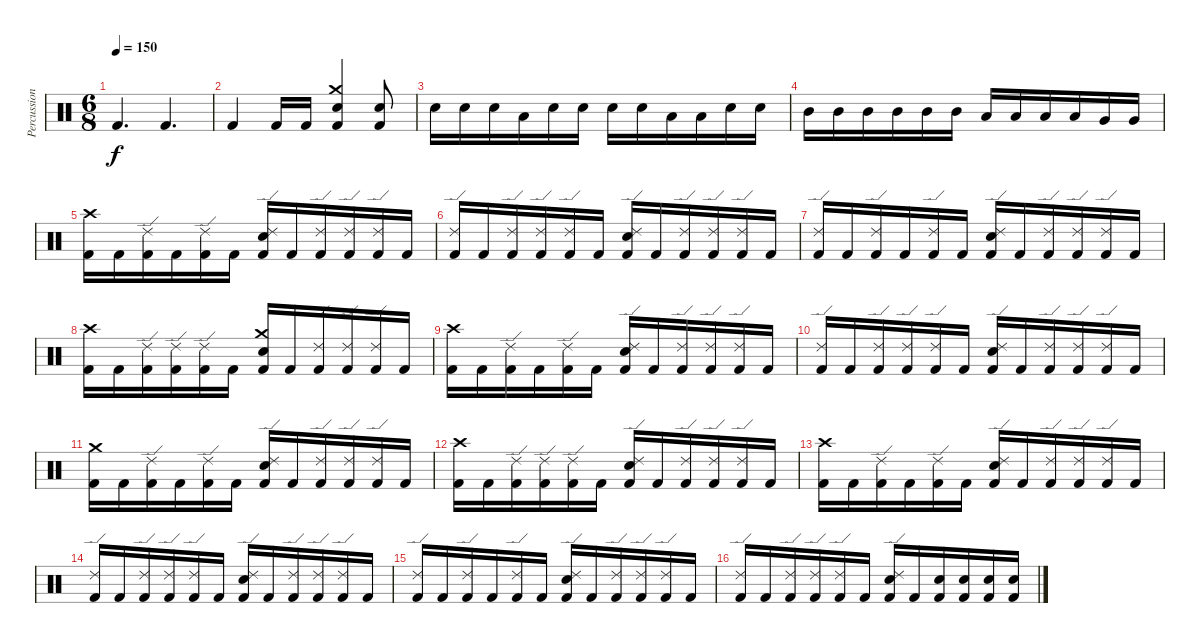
\track ("Percussion" "Percussion") {instrument percussion}
\staff {score}
\articulation defaults
\ts (6 8)
\tempo 150
\clef neutral
\ks c "Kick (hit) 2".4{d dy f} "Kick (hit) 2".4{d}
|
"Kick (hit) 2".4 "Kick (hit) 2".16 "Kick (hit) 2".16 ("Crash medium (hit)" "Electric Snare (hit)" "Kick (hit) 2").4 ("Electric Snare (hit)" "Kick (hit) 2").8 |
"Electric Snare (hit)".16 "Electric Snare (hit)".16 "Electric Snare (hit)".16 "Low Tom (hit)".16 "Electric Snare (hit)".16 "Electric Snare (hit)".16 "Electric Snare (hit)".16 "Electric Snare (hit)".16 "Low Tom (hit)".16 "Low Tom (hit)".16 "Electric Snare (hit)".16 "Electric Snare (hit)".16 |
"Mid Tom (hit)".16 "Mid Tom (hit)".16 "Mid Tom (hit)".16 "Mid Tom (hit)".16 "Mid Tom (hit)".16 "Mid Tom (hit)".16 "Low Tom (hit)".16 "Low Tom (hit)".16 "Low Tom (hit)".16 "Low Tom (hit)".16 "Very Low Tom (hit)".16 "Very Low Tom (hit)".16 |
("Crash high (hit)" "Kick (hit) 2").16 "Kick (hit) 2".16 ("Ride (edge) 2" "Kick (hit) 2").16 "Kick (hit) 2".16 ("Ride (edge) 2" "Kick (hit) 2").16 "Kick (hit) 2".16 ("Ride (edge) 2" "Electric Snare (hit)" "Kick (hit) 2").16 "Kick (hit) 2".16 ("Ride (edge) 2" "Kick (hit) 2").16 ("Ride (edge) 2" "Kick (hit) 2").16 ("Ride (edge) 2" "Kick (hit) 2").16 "Kick (hit) 2".16 |
("Ride (edge) 2" "Kick (hit) 2").16 "Kick (hit) 2".16 ("Ride (edge) 2" "Kick (hit) 2").16 ("Ride (edge) 2" "Kick (hit) 2").16 ("Ride (edge) 2" "Kick (hit) 2").16 "Kick (hit) 2".16 ("Ride (edge) 2" "Electric Snare (hit)" "Kick (hit) 2").16 "Kick (hit) 2".16 ("Ride (edge) 2" "Kick (hit) 2").16 ("Ride (edge) 2" "Kick (hit) 2").16 ("Ride (edge) 2" "Kick (hit) 2").16 "Kick (hit) 2".16 |
("Ride (edge) 2" "Kick (hit) 2").16 "Kick (hit) 2".16 ("Ride (edge) 2" "Kick (hit) 2").16 "Kick (hit) 2".16 ("Ride (edge) 2" "Kick (hit) 2").16 "Kick (hit) 2".16 ("Ride (edge) 2" "Electric Snare (hit)" "Kick (hit) 2").16 "Kick (hit) 2".16 ("Ride (edge) 2" "Kick (hit) 2").16 ("Ride (edge) 2" "Kick (hit) 2").16 ("Ride (edge) 2" "Kick (hit) 2").16 "Kick (hit) 2".16 |
("Crash high (hit)" "Kick (hit) 2").16 "Kick (hit) 2".16 ("Ride (edge) 2" "Kick (hit) 2").16 ("Ride (edge) 2" "Kick (hit) 2").16 ("Ride (edge) 2" "Kick (hit) 2").16 "Kick (hit) 2".16 ("Crash medium (hit)" "Electric Snare (hit)" "Kick (hit) 2").16 "Kick (hit) 2".16 ("Ride (edge) 2" "Kick (hit) 2").16 ("Ride (edge) 2" "Kick (hit) 2").16 ("Ride (edge) 2" "Kick (hit) 2").16 "Kick (hit) 2".16 |
("Crash high (hit)" "Kick (hit) 2").16 "Kick (hit) 2".16 ("Ride (edge) 2" "Kick (hit) 2").16 "Kick (hit) 2".16 ("Ride (edge) 2" "Kick (hit) 2").16 "Kick (hit) 2".16 ("Ride (edge) 2" "Electric Snare (hit)" "Kick (hit) 2").16 "Kick (hit) 2".16 ("Ride (edge) 2" "Kick (hit) 2").16 ("Ride (edge) 2" "Kick (hit) 2").16 ("Ride (edge) 2" "Kick (hit) 2").16 "Kick (hit) 2".16 |
("Ride (edge) 2" "Kick (hit) 2").16 "Kick (hit) 2".16 ("Ride (edge) 2" "Kick (hit) 2").16 ("Ride (edge) 2" "Kick (hit) 2").16 ("Ride (edge) 2" "Kick (hit) 2").16 "Kick (hit) 2".16 ("Ride (edge) 2" "Electric Snare (hit)" "Kick (hit) 2").16 "Kick (hit) 2".16 ("Ride (edge) 2" "Kick (hit) 2").16 ("Ride (edge) 2" "Kick (hit) 2").16 ("Ride (edge) 2" "Kick (hit) 2").16 "Kick (hit) 2".16 |
("Crash medium (hit)" "Kick (hit) 2").16 "Kick (hit) 2".16 ("Ride (edge) 2" "Kick (hit) 2").16 "Kick (hit) 2".16 ("Ride (edge) 2" "Kick (hit) 2").16 "Kick (hit) 2".16 ("Ride (edge) 2" "Electric Snare (hit)" "Kick (hit) 2").16 "Kick (hit) 2".16 ("Ride (edge) 2" "Kick (hit) 2").16 ("Ride (edge) 2" "Kick (hit) 2").16 ("Ride (edge) 2" "Kick (hit) 2").16 "Kick (hit) 2".16 |
("Crash high (hit)" "Kick (hit) 2").16 "Kick (hit) 2".16 ("Ride (edge) 2" "Kick (hit) 2").16 ("Ride (edge) 2" "Kick (hit) 2").16 ("Ride (edge) 2" "Kick (hit) 2").16 "Kick (hit) 2".16 ("Ride (edge) 2" "Electric Snare (hit)" "Kick (hit) 2").16 "Kick (hit) 2".16 ("Ride (edge) 2" "Kick (hit) 2").16 ("Ride (edge) 2" "Kick (hit) 2").16 ("Ride (edge) 2" "Kick (hit) 2").16 "Kick (hit) 2".16 |
("Crash high (hit)" "Kick (hit) 2").16 "Kick (hit) 2".16 ("Ride (edge) 2" "Kick (hit) 2").16 "Kick (hit) 2".16 ("Ride (edge) 2" "Kick (hit) 2").16 "Kick (hit) 2".16 ("Ride (edge) 2" "Electric Snare (hit)" "Kick (hit) 2").16 "Kick (hit) 2".16 ("Ride (edge) 2" "Kick (hit) 2").16 ("Ride (edge) 2" "Kick (hit) 2").16 ("Ride (edge) 2" "Kick (hit) 2").16 "Kick (hit) 2".16 |
("Ride (edge) 2" "Kick (hit) 2").16 "Kick (hit) 2".16 ("Ride (edge) 2" "Kick (hit) 2").16 ("Ride (edge) 2" "Kick (hit) 2").16 ("Ride (edge) 2" "Kick (hit) 2").16 "Kick (hit) 2".16 ("Ride (edge) 2" "Electric Snare (hit)" "Kick (hit) 2").16 "Kick (hit) 2".16 ("Ride (edge) 2" "Kick (hit) 2").16 ("Ride (edge) 2" "Kick (hit) 2").16 ("Ride (edge) 2" "Kick (hit) 2").16 "Kick (hit) 2".16 |
("Ride (edge) 2" "Kick (hit) 2").16 "Kick (hit) 2".16 ("Ride (edge) 2" "Kick (hit) 2").16 "Kick (hit) 2".16 ("Ride (edge) 2" "Kick (hit) 2").16 "Kick (hit) 2".16 ("Ride (edge) 2" "Electric Snare (hit)" "Kick (hit) 2").16 "Kick (hit) 2".16 ("Ride (edge) 2" "Kick (hit) 2").16 ("Ride (edge) 2" "Kick (hit) 2").16 ("Ride (edge) 2" "Kick (hit) 2").16 "Kick (hit) 2".16 |
("Ride (edge) 2" "Kick (hit) 2").16 "Kick (hit) 2".16 ("Ride (edge) 2" "Kick (hit) 2").16 ("Ride (edge) 2" "Kick (hit) 2").16 ("Ride (edge) 2" "Kick (hit) 2").16 "Kick (hit) 2".16 ("Ride (edge) 2" "Electric Snare (hit)" "Kick (hit) 2").16 "Kick (hit) 2".16 ("Electric Snare (hit)" "Kick (hit) 2").16 ("Electric Snare (hit)" "Kick (hit) 2").16 ("Electric Snare (hit)" "Kick (hit) 2").16 ("Electric Snare (hit)" "Kick (hit) 2").16
